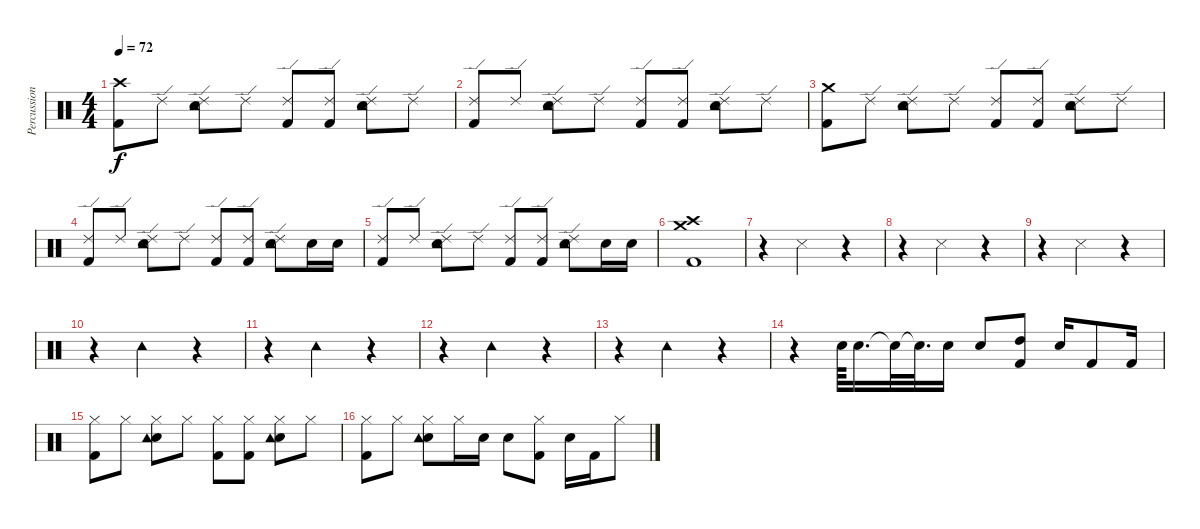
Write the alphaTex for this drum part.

\track ("Percussion" "Percussion") {instrument percussion}
\staff {score}
\articulation defaults
\ts (4 4)
\tempo 72
\clef neutral
\ks c
("Crash high (hit)" "Kick (hit) 2").8{dy f} "Ride (edge) 2".8 ("Ride (edge) 2" "Snare (hit) 2" "Tambourine (hit)").8 "Ride (edge) 2".8 ("Ride (edge) 2" "Kick (hit) 2").8 ("Ride (edge) 2" "Kick (hit) 2").8 ("Ride (edge) 2" "Snare (hit) 2" "Tambourine (hit)").8 "Ride (edge) 2".8 |
("Ride (edge) 2" "Kick (hit) 2").8 "Ride (edge) 2".8 ("Ride (edge) 2" "Snare (hit) 2" "Tambourine (hit)").8 "Ride (edge) 2".8 ("Ride (edge) 2" "Kick (hit) 2").8 ("Ride (edge) 2" "Kick (hit) 2").8 ("Ride (edge) 2" "Snare (hit) 2" "Tambourine (hit)").8 "Ride (edge) 2".8 |
("Crash medium (hit)" "Kick (hit) 2").8 "Ride (edge) 2".8 ("Ride (edge) 2" "Snare (hit) 2" "Tambourine (hit)").8 "Ride (edge) 2".8 ("Ride (edge) 2" "Kick (hit) 2").8 ("Ride (edge) 2" "Kick (hit) 2").8 ("Ride (edge) 2" "Snare (hit) 2" "Tambourine (hit)").8 "Ride (edge) 2".8 |
("Ride (edge) 2" "Kick (hit) 2").8 "Ride (edge) 2".8 ("Ride (edge) 2" "Snare (hit) 2" "Tambourine (hit)").8 "Ride (edge) 2".8 ("Ride (edge) 2" "Kick (hit) 2").8 ("Ride (edge) 2" "Kick (hit) 2").8 ("Ride (edge) 2" "Snare (hit) 2" "Tambourine (hit)").8 "Snare (hit) 2".16 "Snare (hit) 2".16 |
("Ride (edge) 2" "Kick (hit) 2").8 "Ride (edge) 2".8 ("Ride (edge) 2" "Snare (hit) 2" "Tambourine (hit)").8 "Ride (edge) 2".8 ("Ride (edge) 2" "Kick (hit) 2").8 ("Ride (edge) 2" "Kick (hit) 2").8 ("Ride (edge) 2" "Snare (hit) 2" "Tambourine (hit)").8 "Snare (hit) 2".16 "Snare (hit) 2".16 |
("Crash high (hit)" "Crash medium (hit)" "Kick (hit) 2").1 |
r.4 "Snare (side stick) 3".2 r.4 |
r.4 "Snare (side stick) 3".2 r.4 |
r.4 "Snare (side stick) 3".2 r.4 |
r.4 "Tambourine (hit)".2 r.4 |
r.4 "Tambourine (hit)".2 r.4 |
r.4 "Tambourine (hit)".2 r.4 |
r.4 "Tambourine (hit)".2 r.4 |
r.4 "Snare (hit) 2".64 "Snare (hit) 2".16{d} "Snare (hit)"{t}.32 "Snare (hit)"{t}.32{d} "Snare (hit) 2".16 "Snare (hit) 2".8 ("High Tom (hit)" "Kick (hit) 2").8 "Snare (hit) 2".16 "Kick (hit) 2".8 "Kick (hit) 2".16 |
("Hi-Hat (closed)" "Kick (hit) 2").8 "Hi-Hat (closed)".8 ("Hi-Hat (closed)" "Snare (hit) 2" "Tambourine (hit)").8 "Hi-Hat (closed)".8 ("Hi-Hat (closed)" "Kick (hit) 2").8 ("Hi-Hat (closed)" "Kick (hit) 2").8 ("Hi-Hat (closed)" "Snare (hit) 2" "Tambourine (hit)").8 "Hi-Hat (closed)".8 |
("Hi-Hat (closed)" "Kick (hit) 2").8 "Hi-Hat (closed)".8 ("Hi-Hat (closed)" "Snare (hit) 2" "Tambourine (hit)").8 "Hi-Hat (closed)".16 "Snare (hit) 2".16 "Snare (hit) 2".8 ("Hi-Hat (closed)" "Kick (hit) 2").8 "Snare (hit) 2".16 "Kick (hit) 2".16 "Hi-Hat (closed)".8
